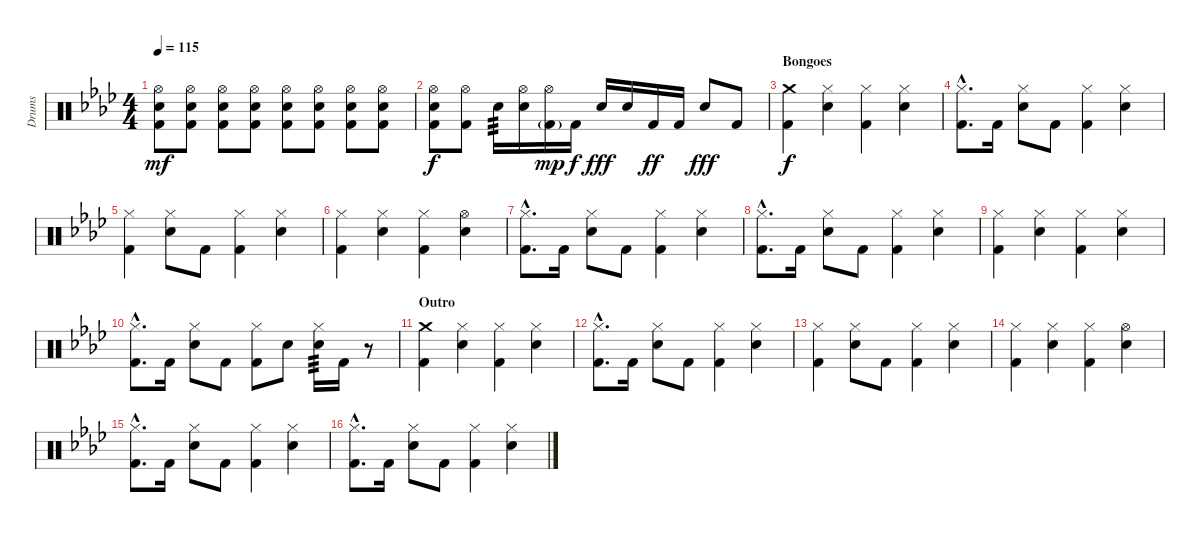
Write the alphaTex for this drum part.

\track ("Drums" "Drums") {instrument percussion}
\staff {score}
\articulation defaults
\ts (4 4)
\tempo 115
\clef neutral
\ks ab
("Hi-Hat (open)" "Snare (hit) 2" "Kick (hit) 2").8{dy mf} ("Hi-Hat (open)" "Snare (hit) 2" "Kick (hit) 2").8 ("Hi-Hat (open)" "Snare (hit) 2" "Kick (hit) 2").8 ("Hi-Hat (open)" "Snare (hit) 2" "Kick (hit) 2").8 ("Hi-Hat (open)" "Snare (hit) 2" "Kick (hit) 2").8 ("Hi-Hat (open)" "Snare (hit) 2" "Kick (hit) 2").8 ("Hi-Hat (open)" "Snare (hit) 2" "Kick (hit) 2").8 ("Hi-Hat (open)" "Snare (hit) 2" "Kick (hit) 2").8 |
("Hi-Hat (open)" "Snare (hit) 2" "Kick (hit) 2").8{dy f} ("Hi-Hat (open)" "Kick (hit) 2").8 "Snare (hit) 2".16{tp 3} ("Hi-Hat (open)" "Snare (hit) 2").16 ("Hi-Hat (open)" "Kick (hit) 2"{g}).16{dy mp} "Kick (hit) 2".16{dy f} "Snare (hit) 2".16{dy fff} "Snare (hit) 2".16 "Kick (hit) 2".16{dy ff} "Kick (hit) 2".16 "Snare (hit) 2".8{dy fff} "Kick (hit) 2".8 |
\section ("" "Bongoes")
("Crash medium (hit)" "Kick (hit) 2").4{dy f} ("Hi-Hat (closed)" "Snare (hit) 2").4 ("Hi-Hat (closed)" "Kick (hit) 2").4 ("Hi-Hat (closed)" "Snare (hit) 2").4 |
("Hi-Hat (closed)"{hac} "Kick (hit) 2"{hac}).8{d} "Kick (hit) 2".16 ("Hi-Hat (closed)" "Snare (hit) 2").8 "Kick (hit) 2".8 ("Hi-Hat (closed)" "Kick (hit) 2").4 ("Hi-Hat (closed)" "Snare (hit) 2").4 |
("Hi-Hat (closed)" "Kick (hit) 2").4 ("Hi-Hat (closed)" "Snare (hit) 2").8 "Kick (hit) 2".8 ("Hi-Hat (closed)" "Kick (hit) 2").4 ("Hi-Hat (closed)" "Snare (hit) 2").4 |
("Hi-Hat (closed)" "Kick (hit) 2").4 ("Hi-Hat (closed)" "Snare (hit) 2").4 ("Hi-Hat (closed)" "Kick (hit) 2").4 ("Hi-Hat (open)" "Snare (hit) 2").4 |
("Hi-Hat (closed)"{hac} "Kick (hit) 2"{hac}).8{d} "Kick (hit) 2".16 ("Hi-Hat (closed)" "Snare (hit) 2").8 "Kick (hit) 2".8 ("Hi-Hat (closed)" "Kick (hit) 2").4 ("Hi-Hat (closed)" "Snare (hit) 2").4 |
("Hi-Hat (closed)"{hac} "Kick (hit) 2"{hac}).8{d} "Kick (hit) 2".16 ("Hi-Hat (closed)" "Snare (hit) 2").8 "Kick (hit) 2".8 ("Hi-Hat (closed)" "Kick (hit) 2").4 ("Hi-Hat (closed)" "Snare (hit) 2").4 |
("Hi-Hat (closed)" "Kick (hit) 2").4 ("Hi-Hat (closed)" "Snare (hit) 2").4 ("Hi-Hat (closed)" "Kick (hit) 2").4 ("Hi-Hat (closed)" "Snare (hit) 2").4 |
("Hi-Hat (closed)"{hac} "Kick (hit) 2"{hac}).8{d} "Kick (hit) 2".16 ("Hi-Hat (closed)" "Snare (hit) 2").8 "Kick (hit) 2".8 ("Hi-Hat (closed)" "Kick (hit) 2").8 "Snare (hit) 2".8 ("Hi-Hat (closed)" "Snare (hit) 2").16{tp 3} "Kick (hit) 2".16 r.8 |
\section ("" "Outro")
("Crash medium (hit)" "Kick (hit) 2").4 ("Hi-Hat (closed)" "Snare (hit) 2").4 ("Hi-Hat (closed)" "Kick (hit) 2").4 ("Hi-Hat (closed)" "Snare (hit) 2").4 |
("Hi-Hat (closed)"{hac} "Kick (hit) 2"{hac}).8{d} "Kick (hit) 2".16 ("Hi-Hat (closed)" "Snare (hit) 2").8 "Kick (hit) 2".8 ("Hi-Hat (closed)" "Kick (hit) 2").4 ("Hi-Hat (closed)" "Snare (hit) 2").4 |
("Hi-Hat (closed)" "Kick (hit) 2").4 ("Hi-Hat (closed)" "Snare (hit) 2").8 "Kick (hit) 2".8 ("Hi-Hat (closed)" "Kick (hit) 2").4 ("Hi-Hat (closed)" "Snare (hit) 2").4 |
("Hi-Hat (closed)" "Kick (hit) 2").4 ("Hi-Hat (closed)" "Snare (hit) 2").4 ("Hi-Hat (closed)" "Kick (hit) 2").4 ("Hi-Hat (open)" "Snare (hit) 2").4 |
("Hi-Hat (closed)"{hac} "Kick (hit) 2"{hac}).8{d} "Kick (hit) 2".16 ("Hi-Hat (closed)" "Snare (hit) 2").8 "Kick (hit) 2".8 ("Hi-Hat (closed)" "Kick (hit) 2").4 ("Hi-Hat (closed)" "Snare (hit) 2").4 |
("Hi-Hat (closed)"{hac} "Kick (hit) 2"{hac}).8{d} "Kick (hit) 2".16 ("Hi-Hat (closed)" "Snare (hit) 2").8 "Kick (hit) 2".8 ("Hi-Hat (closed)" "Kick (hit) 2").4 ("Hi-Hat (closed)" "Snare (hit) 2").4
